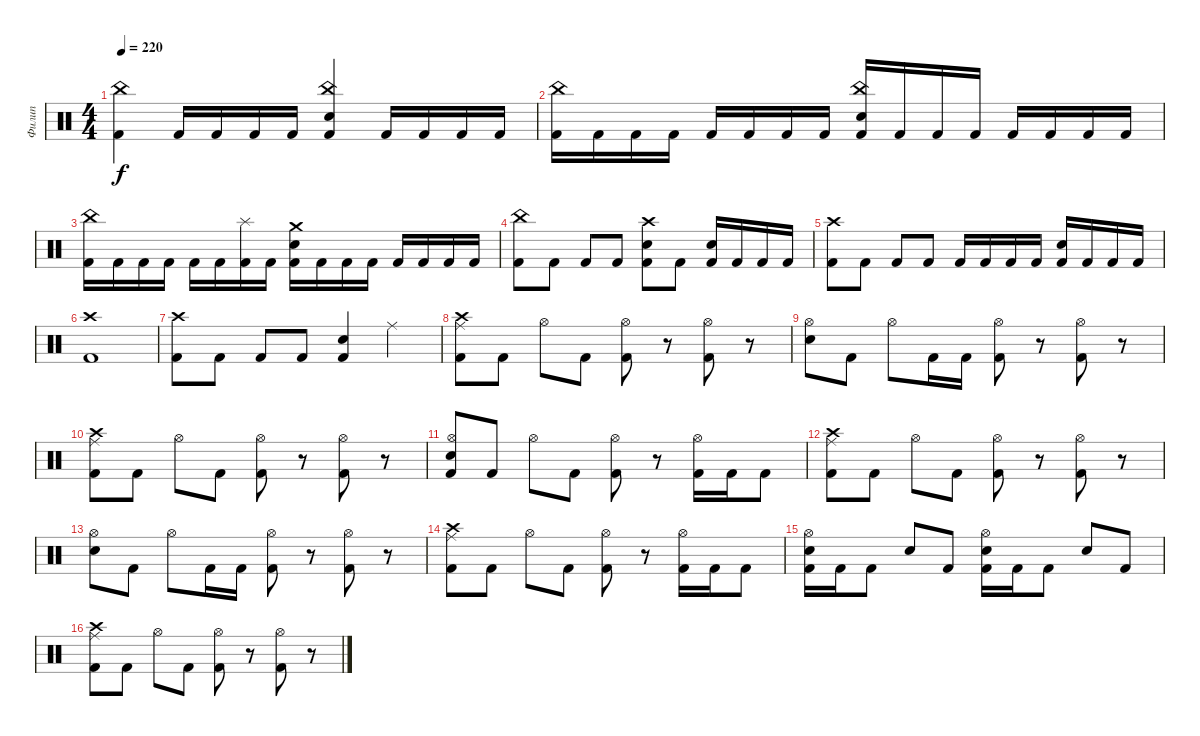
\track ("Филип" "Филип") {instrument percussion}
\staff {score}
\articulation defaults
\ts (4 4)
\tempo 220
\clef neutral
\ks c
("Kick (hit) 2" "China (hit)").4{dy f} "Kick (hit) 2".16 "Kick (hit) 2".16 "Kick (hit) 2".16 "Kick (hit) 2".16 ("China (hit)" "Kick (hit) 2" "Snare (hit) 2").4 "Kick (hit) 2".16 "Kick (hit) 2".16 "Kick (hit) 2".16 "Kick (hit) 2".16 |
("Kick (hit) 2" "China (hit)").16 "Kick (hit) 2".16 "Kick (hit) 2".16 "Kick (hit) 2".16 "Kick (hit) 2".16 "Kick (hit) 2".16 "Kick (hit) 2".16 "Kick (hit) 2".16 ("Kick (hit) 2" "China (hit)" "Snare (hit) 2").16 "Kick (hit) 2".16 "Kick (hit) 2".16 "Kick (hit) 2".16 "Kick (hit) 2".16 "Kick (hit) 2".16 "Kick (hit) 2".16 "Kick (hit) 2".16 |
("Kick (hit) 2" "China (hit)").16 "Kick (hit) 2".16 "Kick (hit) 2".16 "Kick (hit) 2".16 "Kick (hit) 2".16 "Kick (hit) 2".16 ("Kick (hit) 2" "Splash (hit)").16 "Kick (hit) 2".16 ("Kick (hit) 2" "Snare (hit) 2" "Crash medium (hit)").16 "Kick (hit) 2".16 "Kick (hit) 2".16 "Kick (hit) 2".16 "Kick (hit) 2".16 "Kick (hit) 2".16 "Kick (hit) 2".16 "Kick (hit) 2".16 |
("Kick (hit) 2" "China (hit)").8 "Kick (hit) 2".8 "Kick (hit) 2".8 "Kick (hit) 2".8 ("Kick (hit) 2" "Crash high (hit)" "Snare (hit) 2").8 "Kick (hit) 2".8 ("Kick (hit) 2" "Snare (hit) 2").16 "Kick (hit) 2".16 "Kick (hit) 2".16 "Kick (hit) 2".16 |
("Kick (hit) 2" "Crash high (hit)").8 "Kick (hit) 2".8 "Kick (hit) 2".8 "Kick (hit) 2".8 "Kick (hit) 2".16 "Kick (hit) 2".16 "Kick (hit) 2".16 "Kick (hit) 2".16 ("Kick (hit) 2" "Snare (hit) 2").16 "Kick (hit) 2".16 "Kick (hit) 2".16 "Kick (hit) 2".16 |
("Kick (hit) 2" "Crash high (hit)").1 |
("Kick (hit) 2" "Crash high (hit)").8 "Kick (hit) 2".8 "Kick (hit) 2".8 "Kick (hit) 2".8 ("Kick (hit) 2" "Snare (hit) 2").4 "Ride (middle)".4 |
("Crash high (hit)" "Ride (middle)" "Kick (hit) 2").8 "Kick (hit) 2".8 "Hi-Hat (open)".8 "Kick (hit) 2".8 ("Kick (hit) 2" "Hi-Hat (open)").8 r.8 ("Hi-Hat (open)" "Kick (hit) 2").8 r.8 |
("Hi-Hat (open)" "Electric Snare (hit)").8 "Kick (hit) 2".8 "Hi-Hat (open)".8 "Kick (hit) 2".16 "Kick (hit) 2".16 ("Kick (hit) 2" "Hi-Hat (open)").8 r.8 ("Hi-Hat (open)" "Kick (hit) 2").8 r.8 |
("Crash high (hit)" "Ride (middle)" "Kick (hit) 2").8 "Kick (hit) 2".8 "Hi-Hat (open)".8 "Kick (hit) 2".8 ("Kick (hit) 2" "Hi-Hat (open)").8 r.8 ("Hi-Hat (open)" "Kick (hit) 2").8 r.8 |
("Kick (hit) 2" "Hi-Hat (open)" "Electric Snare (hit)").8 "Kick (hit) 2".8 "Hi-Hat (open)".8 "Kick (hit) 2".8 ("Kick (hit) 2" "Hi-Hat (open)").8 r.8 ("Hi-Hat (open)" "Kick (hit) 2").16 "Kick (hit) 2".16 "Kick (hit) 2".8 |
("Crash high (hit)" "Ride (middle)" "Kick (hit) 2").8 "Kick (hit) 2".8 "Hi-Hat (open)".8 "Kick (hit) 2".8 ("Kick (hit) 2" "Hi-Hat (open)").8 r.8 ("Hi-Hat (open)" "Kick (hit) 2").8 r.8 |
("Hi-Hat (open)" "Electric Snare (hit)").8 "Kick (hit) 2".8 "Hi-Hat (open)".8 "Kick (hit) 2".16 "Kick (hit) 2".16 ("Kick (hit) 2" "Hi-Hat (open)").8 r.8 ("Hi-Hat (open)" "Kick (hit) 2").8 r.8 |
("Crash high (hit)" "Ride (middle)" "Kick (hit) 2").8 "Kick (hit) 2".8 "Hi-Hat (open)".8 "Kick (hit) 2".8 ("Kick (hit) 2" "Hi-Hat (open)").8 r.8 ("Hi-Hat (open)" "Kick (hit) 2").16 "Kick (hit) 2".16 "Kick (hit) 2".8 |
("Snare (hit) 2" "Hi-Hat (open)" "Kick (hit) 2").16 "Kick (hit) 2".16 "Kick (hit) 2".8 "Snare (hit) 2".8 "Kick (hit) 2".8 ("Snare (hit) 2" "Hi-Hat (open)" "Kick (hit) 2").16 "Kick (hit) 2".16 "Kick (hit) 2".8 "Snare (hit) 2".8 "Kick (hit) 2".8 |
("Crash high (hit)" "Ride (middle)" "Kick (hit) 2").8 "Kick (hit) 2".8 "Hi-Hat (open)".8 "Kick (hit) 2".8 ("Kick (hit) 2" "Hi-Hat (open)").8 r.8 ("Hi-Hat (open)" "Kick (hit) 2").8 r.8
